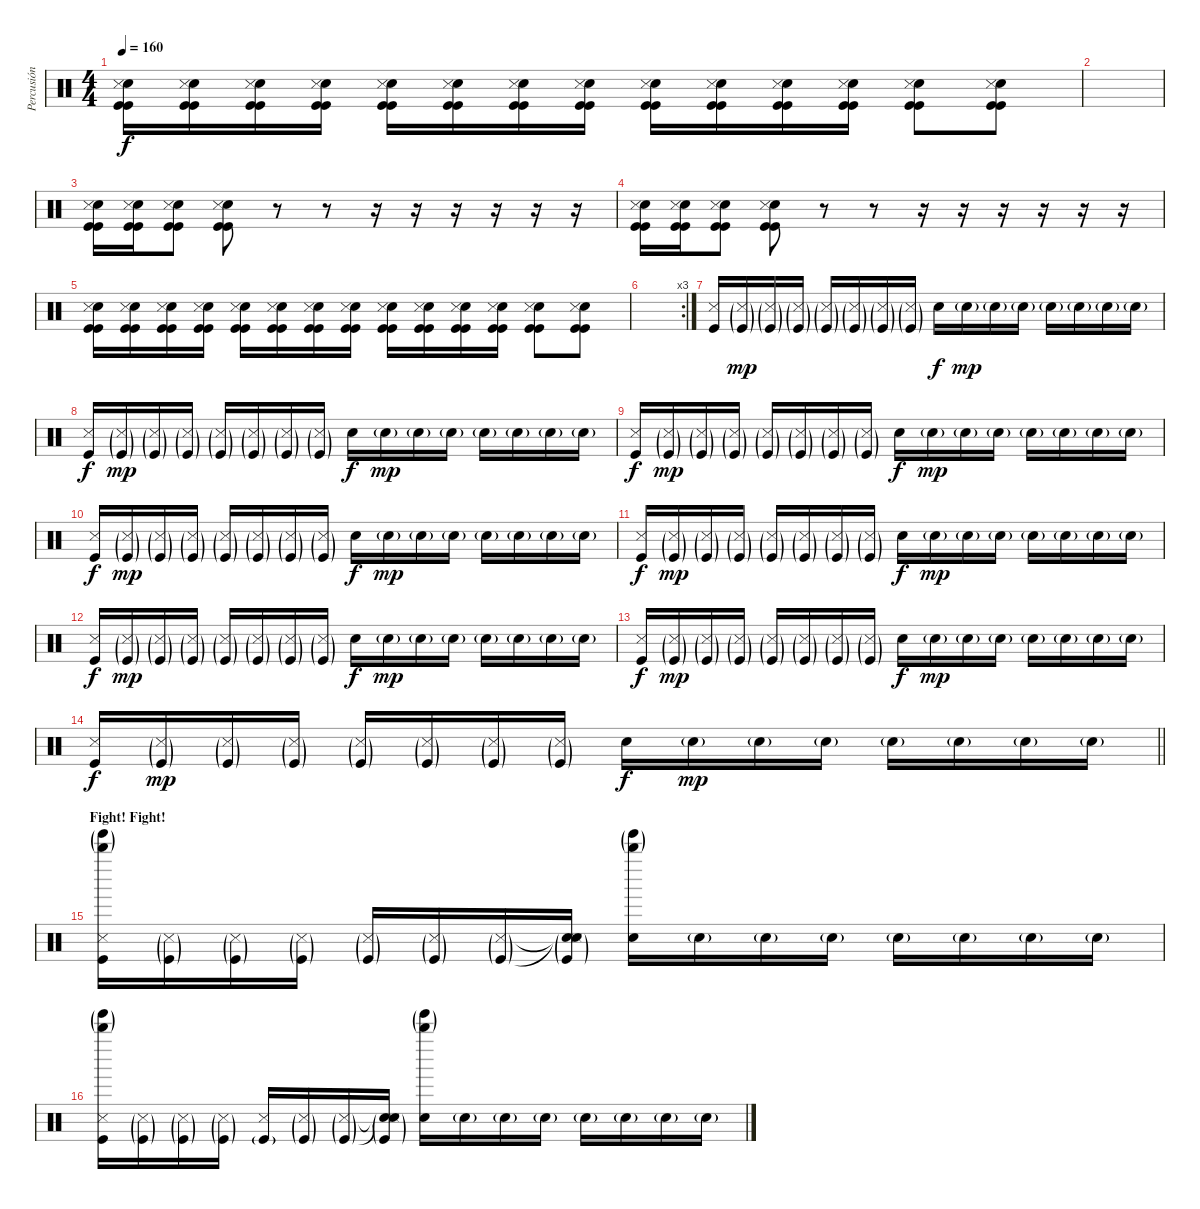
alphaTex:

\track ("Percusión" "Percusión") {instrument percussion}
\staff {score}
\articulation defaults
\ts (4 4)
\tempo 160
\clef neutral
\ks c
("Snare (hit) 2" "Kick (hit)" "Metronome (hit)" "Kick (hit)").16{dy f} ("Snare (hit) 2" "Kick (hit)" "Metronome (hit)" "Kick (hit)").16 ("Snare (hit) 2" "Kick (hit)" "Metronome (hit)" "Kick (hit)").16 ("Snare (hit) 2" "Kick (hit)" "Metronome (hit)" "Kick (hit)").16 ("Snare (hit) 2" "Kick (hit)" "Metronome (hit)" "Kick (hit)").16 ("Snare (hit) 2" "Kick (hit)" "Metronome (hit)" "Kick (hit)").16 ("Snare (hit) 2" "Kick (hit)" "Metronome (hit)" "Kick (hit)").16 ("Snare (hit) 2" "Kick (hit)" "Metronome (hit)" "Kick (hit)").16 ("Snare (hit) 2" "Kick (hit)" "Metronome (hit)" "Kick (hit)").16 ("Snare (hit) 2" "Kick (hit)" "Metronome (hit)" "Kick (hit)").16 ("Snare (hit) 2" "Kick (hit)" "Metronome (hit)" "Kick (hit)").16 ("Snare (hit) 2" "Kick (hit)" "Metronome (hit)" "Kick (hit)").16 ("Snare (hit) 2" "Kick (hit)" "Metronome (hit)" "Kick (hit)").8 ("Snare (hit) 2" "Kick (hit)" "Metronome (hit)" "Kick (hit)").8 |
|
("Snare (hit) 2" "Kick (hit)" "Metronome (hit)" "Kick (hit)").16 ("Snare (hit) 2" "Kick (hit)" "Metronome (hit)" "Kick (hit)").16 ("Snare (hit) 2" "Kick (hit)" "Metronome (hit)" "Kick (hit)").8 ("Snare (hit) 2" "Kick (hit)" "Metronome (hit)" "Kick (hit)").8 r.8 r.8 r.16 r.16 r.16 r.16 r.16 r.16 |
("Snare (hit) 2" "Kick (hit)" "Metronome (hit)" "Kick (hit)").16 ("Snare (hit) 2" "Kick (hit)" "Metronome (hit)" "Kick (hit)").16 ("Snare (hit) 2" "Kick (hit)" "Metronome (hit)" "Kick (hit)").8 ("Snare (hit) 2" "Kick (hit)" "Metronome (hit)" "Kick (hit)").8 r.8 r.8 r.16 r.16 r.16 r.16 r.16 r.16 |
("Snare (hit) 2" "Kick (hit)" "Metronome (hit)" "Kick (hit)").16 ("Snare (hit) 2" "Kick (hit)" "Metronome (hit)" "Kick (hit)").16 ("Snare (hit) 2" "Kick (hit)" "Metronome (hit)" "Kick (hit)").16 ("Snare (hit) 2" "Kick (hit)" "Metronome (hit)" "Kick (hit)").16 ("Snare (hit) 2" "Kick (hit)" "Metronome (hit)" "Kick (hit)").16 ("Snare (hit) 2" "Kick (hit)" "Metronome (hit)" "Kick (hit)").16 ("Snare (hit) 2" "Kick (hit)" "Metronome (hit)" "Kick (hit)").16 ("Snare (hit) 2" "Kick (hit)" "Metronome (hit)" "Kick (hit)").16 ("Snare (hit) 2" "Kick (hit)" "Metronome (hit)" "Kick (hit)").16 ("Snare (hit) 2" "Kick (hit)" "Metronome (hit)" "Kick (hit)").16 ("Snare (hit) 2" "Kick (hit)" "Metronome (hit)" "Kick (hit)").16 ("Snare (hit) 2" "Kick (hit)" "Metronome (hit)" "Kick (hit)").16 ("Snare (hit) 2" "Kick (hit)" "Metronome (hit)" "Kick (hit)").8 ("Snare (hit) 2" "Kick (hit)" "Metronome (hit)" "Kick (hit)").8 |
\rc 3
|
("Kick (hit)" "Snare (side stick) 3").16 ("Kick (hit)"{g} "Snare (side stick) 3"{g}).16{dy mp} ("Kick (hit)"{g} "Snare (side stick) 3"{g}).16 ("Kick (hit)"{g} "Snare (side stick) 3"{g}).16 ("Kick (hit)"{g} "Snare (side stick) 3"{g}).16 ("Kick (hit)"{g} "Snare (side stick) 3"{g}).16 ("Kick (hit)"{g} "Snare (side stick) 3"{g}).16 ("Kick (hit)"{g} "Snare (side stick) 3"{g}).16 "Snare (hit) 2".16{dy f} "Snare (hit) 2"{g}.16{dy mp} "Snare (hit) 2"{g}.16 "Snare (hit) 2"{g}.16 "Snare (hit) 2"{g}.16 "Snare (hit) 2"{g}.16 "Snare (hit) 2"{g}.16 "Snare (hit) 2"{g}.16 |
("Kick (hit)" "Snare (side stick) 3").16{dy f} ("Kick (hit)"{g} "Snare (side stick) 3"{g}).16{dy mp} ("Kick (hit)"{g} "Snare (side stick) 3"{g}).16 ("Kick (hit)"{g} "Snare (side stick) 3"{g}).16 ("Kick (hit)"{g} "Snare (side stick) 3"{g}).16 ("Kick (hit)"{g} "Snare (side stick) 3"{g}).16 ("Kick (hit)"{g} "Snare (side stick) 3"{g}).16 ("Kick (hit)"{g} "Snare (side stick) 3"{g}).16 "Snare (hit) 2".16{dy f} "Snare (hit) 2"{g}.16{dy mp} "Snare (hit) 2"{g}.16 "Snare (hit) 2"{g}.16 "Snare (hit) 2"{g}.16 "Snare (hit) 2"{g}.16 "Snare (hit) 2"{g}.16 "Snare (hit) 2"{g}.16 |
("Kick (hit)" "Snare (side stick) 3").16{dy f} ("Kick (hit)"{g} "Snare (side stick) 3"{g}).16{dy mp} ("Kick (hit)"{g} "Snare (side stick) 3"{g}).16 ("Kick (hit)"{g} "Snare (side stick) 3"{g}).16 ("Kick (hit)"{g} "Snare (side stick) 3"{g}).16 ("Kick (hit)"{g} "Snare (side stick) 3"{g}).16 ("Kick (hit)"{g} "Snare (side stick) 3"{g}).16 ("Kick (hit)"{g} "Snare (side stick) 3"{g}).16 "Snare (hit) 2".16{dy f} "Snare (hit) 2"{g}.16{dy mp} "Snare (hit) 2"{g}.16 "Snare (hit) 2"{g}.16 "Snare (hit) 2"{g}.16 "Snare (hit) 2"{g}.16 "Snare (hit) 2"{g}.16 "Snare (hit) 2"{g}.16 |
("Kick (hit)" "Snare (side stick) 3").16{dy f} ("Kick (hit)"{g} "Snare (side stick) 3"{g}).16{dy mp} ("Kick (hit)"{g} "Snare (side stick) 3"{g}).16 ("Kick (hit)"{g} "Snare (side stick) 3"{g}).16 ("Kick (hit)"{g} "Snare (side stick) 3"{g}).16 ("Kick (hit)"{g} "Snare (side stick) 3"{g}).16 ("Kick (hit)"{g} "Snare (side stick) 3"{g}).16 ("Kick (hit)"{g} "Snare (side stick) 3"{g}).16 "Snare (hit) 2".16{dy f} "Snare (hit) 2"{g}.16{dy mp} "Snare (hit) 2"{g}.16 "Snare (hit) 2"{g}.16 "Snare (hit) 2"{g}.16 "Snare (hit) 2"{g}.16 "Snare (hit) 2"{g}.16 "Snare (hit) 2"{g}.16 |
("Kick (hit)" "Snare (side stick) 3").16{dy f} ("Kick (hit)"{g} "Snare (side stick) 3"{g}).16{dy mp} ("Kick (hit)"{g} "Snare (side stick) 3"{g}).16 ("Kick (hit)"{g} "Snare (side stick) 3"{g}).16 ("Kick (hit)"{g} "Snare (side stick) 3"{g}).16 ("Kick (hit)"{g} "Snare (side stick) 3"{g}).16 ("Kick (hit)"{g} "Snare (side stick) 3"{g}).16 ("Kick (hit)"{g} "Snare (side stick) 3"{g}).16 "Snare (hit) 2".16{dy f} "Snare (hit) 2"{g}.16{dy mp} "Snare (hit) 2"{g}.16 "Snare (hit) 2"{g}.16 "Snare (hit) 2"{g}.16 "Snare (hit) 2"{g}.16 "Snare (hit) 2"{g}.16 "Snare (hit) 2"{g}.16 |
("Kick (hit)" "Snare (side stick) 3").16{dy f} ("Kick (hit)"{g} "Snare (side stick) 3"{g}).16{dy mp} ("Kick (hit)"{g} "Snare (side stick) 3"{g}).16 ("Kick (hit)"{g} "Snare (side stick) 3"{g}).16 ("Kick (hit)"{g} "Snare (side stick) 3"{g}).16 ("Kick (hit)"{g} "Snare (side stick) 3"{g}).16 ("Kick (hit)"{g} "Snare (side stick) 3"{g}).16 ("Kick (hit)"{g} "Snare (side stick) 3"{g}).16 "Snare (hit) 2".16{dy f} "Snare (hit) 2"{g}.16{dy mp} "Snare (hit) 2"{g}.16 "Snare (hit) 2"{g}.16 "Snare (hit) 2"{g}.16 "Snare (hit) 2"{g}.16 "Snare (hit) 2"{g}.16 "Snare (hit) 2"{g}.16 |
("Kick (hit)" "Snare (side stick) 3").16{dy f} ("Kick (hit)"{g} "Snare (side stick) 3"{g}).16{dy mp} ("Kick (hit)"{g} "Snare (side stick) 3"{g}).16 ("Kick (hit)"{g} "Snare (side stick) 3"{g}).16 ("Kick (hit)"{g} "Snare (side stick) 3"{g}).16 ("Kick (hit)"{g} "Snare (side stick) 3"{g}).16 ("Kick (hit)"{g} "Snare (side stick) 3"{g}).16 ("Kick (hit)"{g} "Snare (side stick) 3"{g}).16 "Snare (hit) 2".16{dy f} "Snare (hit) 2"{g}.16{dy mp} "Snare (hit) 2"{g}.16 "Snare (hit) 2"{g}.16 "Snare (hit) 2"{g}.16 "Snare (hit) 2"{g}.16 "Snare (hit) 2"{g}.16 "Snare (hit) 2"{g}.16 |
\barLineRight lightlight
("Kick (hit)" "Snare (side stick) 3").16{dy f} ("Kick (hit)"{g} "Snare (side stick) 3"{g}).16{dy mp} ("Kick (hit)"{g} "Snare (side stick) 3"{g}).16 ("Kick (hit)"{g} "Snare (side stick) 3"{g}).16 ("Kick (hit)"{g} "Snare (side stick) 3"{g}).16 ("Kick (hit)"{g} "Snare (side stick) 3"{g}).16 ("Kick (hit)"{g} "Snare (side stick) 3"{g}).16 ("Kick (hit)"{g} "Snare (side stick) 3"{g}).16 "Snare (hit) 2".16{dy f} "Snare (hit) 2"{g}.16{dy mp} "Snare (hit) 2"{g}.16 "Snare (hit) 2"{g}.16 "Snare (hit) 2"{g}.16 "Snare (hit) 2"{g}.16 "Snare (hit) 2"{g}.16 "Snare (hit) 2"{g}.16 |
\section ("" "Fight! Fight! ")
("Tinkle Bell (hit)"{g} "Whistle high (hit)"{g} "Kick (hit)" "Snare (side stick) 3").16 ("Kick (hit)"{g} "Snare (side stick) 3"{g}).16 ("Kick (hit)"{g} "Snare (side stick) 3"{g}).16 ("Kick (hit)"{g} "Snare (side stick) 3"{g}).16 ("Kick (hit)"{g} "Snare (side stick) 3"{g}).16 ("Kick (hit)"{g} "Snare (side stick) 3"{g}).16 ("Kick (hit)"{g} "Snare (side stick) 3"{g}).16 ("Snare (hit)"{t} "Snare (hit)"{t} "Kick (hit)"{g} "Snare (side stick) 3"{g}).16 ("Tinkle Bell (hit)"{g} "Whistle high (hit)"{g} "Snare (hit) 2").16 "Snare (hit) 2"{g}.16 "Snare (hit) 2"{g}.16 "Snare (hit) 2"{g}.16 "Snare (hit) 2"{g}.16 "Snare (hit) 2"{g}.16 "Snare (hit) 2"{g}.16 "Snare (hit) 2"{g}.16 |
("Tinkle Bell (hit)"{g} "Whistle high (hit)"{g} "Kick (hit)" "Snare (side stick) 3").16 ("Kick (hit)"{g} "Snare (side stick) 3"{g}).16 ("Kick (hit)"{g} "Snare (side stick) 3"{g}).16 ("Kick (hit)"{g} "Snare (side stick) 3"{g}).16 ("Kick (hit)"{g} "Snare (side stick) 3").16 ("Kick (hit)"{g} "Snare (side stick) 3"{g}).16 ("Kick (hit)"{g} "Snare (side stick) 3"{g}).16 ("Snare (hit)"{t} "Snare (hit)"{t} "Kick (hit)"{g} "Snare (side stick) 3"{g}).16 ("Tinkle Bell (hit)"{g} "Whistle high (hit)"{g} "Snare (hit) 2").16 "Snare (hit) 2"{g}.16 "Snare (hit) 2"{g}.16 "Snare (hit) 2"{g}.16 "Snare (hit) 2"{g}.16 "Snare (hit) 2"{g}.16 "Snare (hit) 2"{g}.16 "Snare (hit) 2"{g}.16
